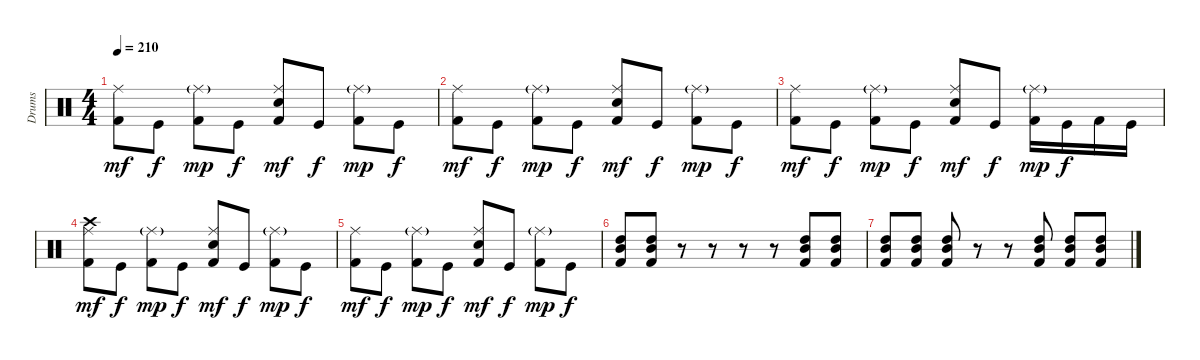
\track ("Drums" "Drums") {instrument percussion}
\staff {score}
\articulation defaults
\ts (4 4)
\tempo 210
\clef neutral
\ks c
("Kick (hit) 2" "Ride (middle)").8{dy mf} "Kick (hit)".8{dy f} ("Kick (hit) 2" "Ride (middle)"{g}).8{dy mp} "Kick (hit)".8{dy f} ("Kick (hit) 2" "Ride (middle)" "Electric Snare (hit)").8{dy mf} "Kick (hit)".8{dy f} ("Kick (hit) 2" "Ride (middle)"{g}).8{dy mp} "Kick (hit)".8{dy f} |
("Kick (hit) 2" "Ride (middle)").8{dy mf} "Kick (hit)".8{dy f} ("Kick (hit) 2" "Ride (middle)"{g}).8{dy mp} "Kick (hit)".8{dy f} ("Kick (hit) 2" "Ride (middle)" "Electric Snare (hit)").8{dy mf} "Kick (hit)".8{dy f} ("Kick (hit) 2" "Ride (middle)"{g}).8{dy mp} "Kick (hit)".8{dy f} |
("Kick (hit) 2" "Ride (middle)").8{dy mf} "Kick (hit)".8{dy f} ("Kick (hit) 2" "Ride (middle)"{g}).8{dy mp} "Kick (hit)".8{dy f} ("Kick (hit) 2" "Ride (middle)" "Electric Snare (hit)").8{dy mf} "Kick (hit)".8{dy f} ("Kick (hit) 2" "Ride (middle)"{g}).16{dy mp} "Kick (hit)".16{dy f} "Kick (hit) 2".16 "Kick (hit)".16 |
("Kick (hit) 2" "Crash high (hit)" "Ride (middle)").8{dy mf} "Kick (hit)".8{dy f} ("Kick (hit) 2" "Ride (middle)"{g}).8{dy mp} "Kick (hit)".8{dy f} ("Kick (hit) 2" "Ride (middle)" "Electric Snare (hit)").8{dy mf} "Kick (hit)".8{dy f} ("Kick (hit) 2" "Ride (middle)"{g}).8{dy mp} "Kick (hit)".8{dy f} |
("Kick (hit) 2" "Ride (middle)").8{dy mf} "Kick (hit)".8{dy f} ("Kick (hit) 2" "Ride (middle)"{g}).8{dy mp} "Kick (hit)".8{dy f} ("Kick (hit) 2" "Ride (middle)" "Electric Snare (hit)").8{dy mf} "Kick (hit)".8{dy f} ("Kick (hit) 2" "Ride (middle)"{g}).8{dy mp} "Kick (hit)".8{dy f} |
("Kick (hit) 2" "Mid Tom (hit)" "High Tom (hit)").8 ("Kick (hit) 2" "Mid Tom (hit)" "High Tom (hit)").8 r.8 r.8 r.8 r.8 ("Kick (hit) 2" "Mid Tom (hit)" "High Tom (hit)").8 ("Kick (hit) 2" "Mid Tom (hit)" "High Tom (hit)").8 |
("Kick (hit) 2" "Mid Tom (hit)" "High Tom (hit)").8 ("Kick (hit) 2" "Mid Tom (hit)" "High Tom (hit)").8 ("Kick (hit) 2" "Mid Tom (hit)" "High Tom (hit)").8 r.8 r.8 ("Kick (hit) 2" "Mid Tom (hit)" "High Tom (hit)").8 ("Kick (hit) 2" "Mid Tom (hit)" "High Tom (hit)").8 ("Kick (hit) 2" "Mid Tom (hit)" "High Tom (hit)").8
